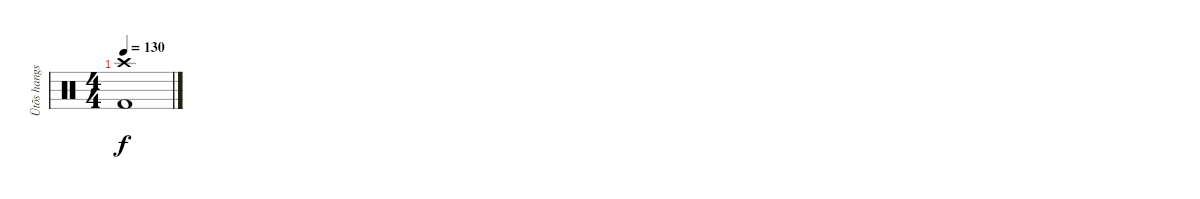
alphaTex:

\track ("Ütõs hangszer" "Ütõs hangs") {instrument percussion}
\staff {score}
\articulation defaults
\ts (4 4)
\tempo 130
\clef neutral
\ks c
("Crash high (hit)" "Kick (hit) 2").1{dy f}
